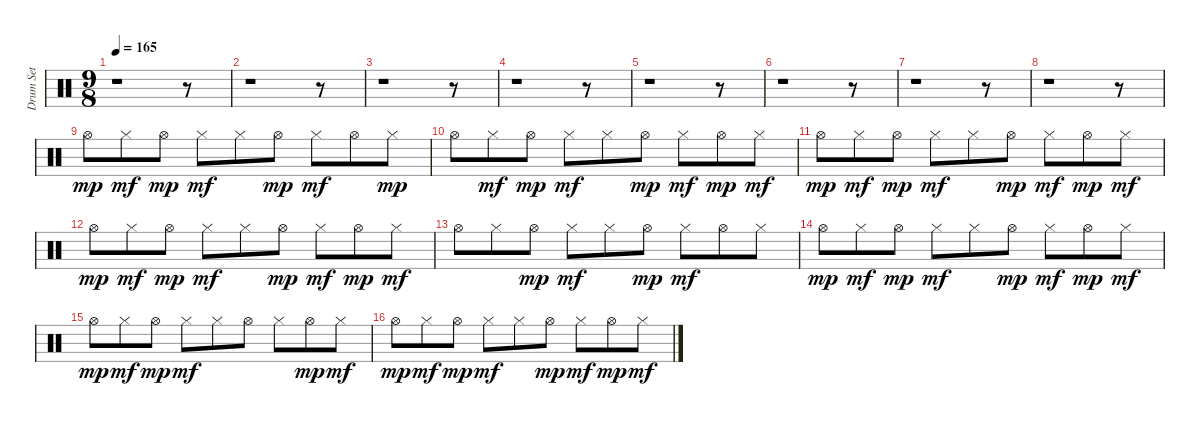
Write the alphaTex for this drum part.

\track ("Drum Set" "Drum Set") {instrument percussion}
\staff {score}
\articulation defaults
\ts (9 8)
\tempo 165
\clef neutral
\ks c
r.1{dy mp} r.8 |
r.1 r.8 |
r.1 r.8 |
r.1 r.8 |
r.1 r.8 |
r.1 r.8 |
r.1 r.8 |
r.1 r.8 |
"Hi-Hat (open)".8 "Hi-Hat (closed)".8{dy mf} "Hi-Hat (open)".8{dy mp} "Hi-Hat (closed)".8{dy mf} "Hi-Hat (closed)".8 "Hi-Hat (open)".8{dy mp} "Hi-Hat (closed)".8{dy mf} "Hi-Hat (open)".8 "Hi-Hat (closed)".8{dy mp} |
"Hi-Hat (open)".8 "Hi-Hat (closed)".8{dy mf} "Hi-Hat (open)".8{dy mp} "Hi-Hat (closed)".8{dy mf} "Hi-Hat (closed)".8 "Hi-Hat (open)".8{dy mp} "Hi-Hat (closed)".8{dy mf} "Hi-Hat (open)".8{dy mp} "Hi-Hat (closed)".8{dy mf} |
"Hi-Hat (open)".8{dy mp} "Hi-Hat (closed)".8{dy mf} "Hi-Hat (open)".8{dy mp} "Hi-Hat (closed)".8{dy mf} "Hi-Hat (closed)".8 "Hi-Hat (open)".8{dy mp} "Hi-Hat (closed)".8{dy mf} "Hi-Hat (open)".8{dy mp} "Hi-Hat (closed)".8{dy mf} |
"Hi-Hat (open)".8{dy mp} "Hi-Hat (closed)".8{dy mf} "Hi-Hat (open)".8{dy mp} "Hi-Hat (closed)".8{dy mf} "Hi-Hat (closed)".8 "Hi-Hat (open)".8{dy mp} "Hi-Hat (closed)".8{dy mf} "Hi-Hat (open)".8{dy mp} "Hi-Hat (closed)".8{dy mf} |
"Hi-Hat (open)".8 "Hi-Hat (closed)".8 "Hi-Hat (open)".8{dy mp} "Hi-Hat (closed)".8{dy mf} "Hi-Hat (closed)".8 "Hi-Hat (open)".8{dy mp} "Hi-Hat (closed)".8{dy mf} "Hi-Hat (open)".8 "Hi-Hat (closed)".8 |
"Hi-Hat (open)".8{dy mp} "Hi-Hat (closed)".8{dy mf} "Hi-Hat (open)".8{dy mp} "Hi-Hat (closed)".8{dy mf} "Hi-Hat (closed)".8 "Hi-Hat (open)".8{dy mp} "Hi-Hat (closed)".8{dy mf} "Hi-Hat (open)".8{dy mp} "Hi-Hat (closed)".8{dy mf} |
"Hi-Hat (open)".8{dy mp} "Hi-Hat (closed)".8{dy mf} "Hi-Hat (open)".8{dy mp} "Hi-Hat (closed)".8{dy mf} "Hi-Hat (closed)".8 "Hi-Hat (open)".8 "Hi-Hat (closed)".8 "Hi-Hat (open)".8{dy mp} "Hi-Hat (closed)".8{dy mf} |
"Hi-Hat (open)".8{dy mp} "Hi-Hat (closed)".8{dy mf} "Hi-Hat (open)".8{dy mp} "Hi-Hat (closed)".8{dy mf} "Hi-Hat (closed)".8 "Hi-Hat (open)".8{dy mp} "Hi-Hat (closed)".8{dy mf} "Hi-Hat (open)".8{dy mp} "Hi-Hat (closed)".8{dy mf}
